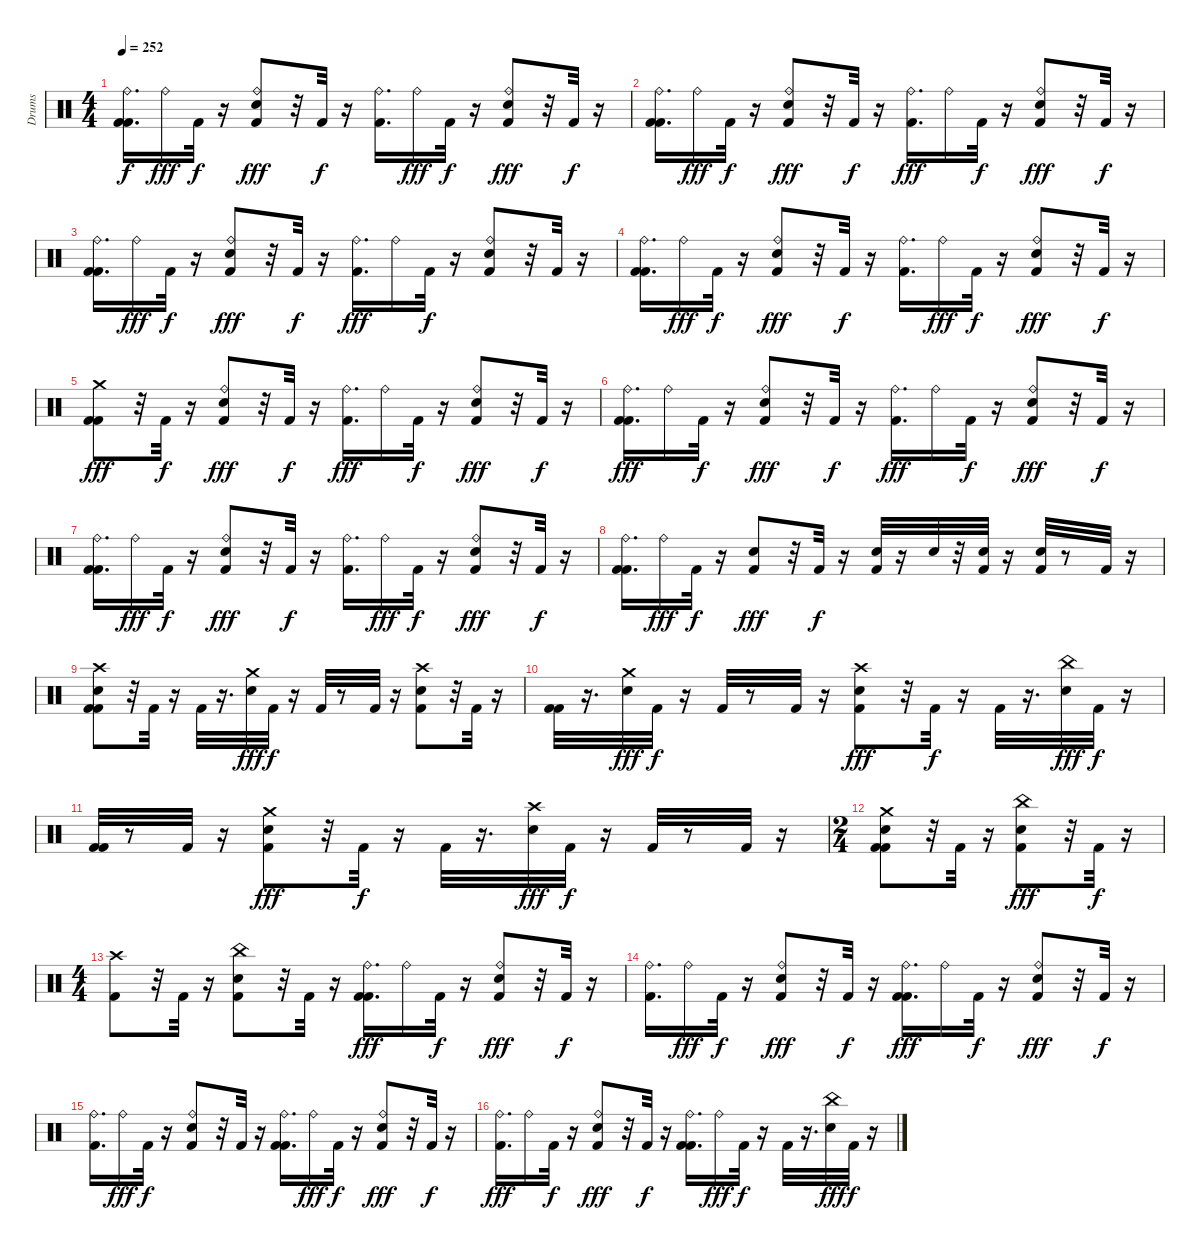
\track ("Drums" "Drums") {instrument percussion}
\staff {score}
\articulation defaults
\ts (4 4)
\tempo 252
\clef neutral
\ks c
("Kick (hit) 2" "Ride (bell)" "Kick (hit) 2").16{d dy f} "Ride (bell)".16{dy fff} "Kick (hit) 2".32{dy f} r.16 ("Snare (hit) 2" "Ride (bell)" "Kick (hit) 2").8{dy fff} r.32 "Kick (hit) 2".32{dy f} r.16 ("Kick (hit) 2" "Ride (bell)").16{d} "Ride (bell)".16{dy fff} "Kick (hit) 2".32{dy f} r.16 ("Ride (bell)" "Snare (hit) 2" "Kick (hit) 2").8{dy fff} r.32 "Kick (hit) 2".32{dy f} r.16 |
("Kick (hit) 2" "Kick (hit) 2" "Ride (bell)").16{d} "Ride (bell)".16{dy fff} "Kick (hit) 2".32{dy f} r.16 ("Snare (hit) 2" "Ride (bell)" "Kick (hit) 2").8{dy fff} r.32 "Kick (hit) 2".32{dy f} r.16 ("Ride (bell)" "Kick (hit) 2").16{d dy fff} "Ride (bell)".16 "Kick (hit) 2".32{dy f} r.16 ("Ride (bell)" "Snare (hit) 2" "Kick (hit) 2").8{dy fff} r.32 "Kick (hit) 2".32{dy f} r.16 |
("Kick (hit) 2" "Kick (hit) 2" "Ride (bell)").16{d} "Ride (bell)".16{dy fff} "Kick (hit) 2".32{dy f} r.16 ("Snare (hit) 2" "Ride (bell)" "Kick (hit) 2").8{dy fff} r.32 "Kick (hit) 2".32{dy f} r.16 ("Ride (bell)" "Kick (hit) 2").16{d dy fff} "Ride (bell)".16 "Kick (hit) 2".32{dy f} r.16 ("Kick (hit) 2" "Snare (hit) 2" "Ride (bell)").8 r.32 "Kick (hit) 2".32 r.16 |
("Kick (hit) 2" "Kick (hit) 2" "Ride (bell)").16{d} "Ride (bell)".16{dy fff} "Kick (hit) 2".32{dy f} r.16 ("Ride (bell)" "Kick (hit) 2" "Snare (hit) 2").8{dy fff} r.32 "Kick (hit) 2".32{dy f} r.16 ("Kick (hit) 2" "Ride (bell)").16{d} "Ride (bell)".16{dy fff} "Kick (hit) 2".32{dy f} r.16 ("Snare (hit) 2" "Kick (hit) 2" "Ride (bell)").8{dy fff} r.32 "Kick (hit) 2".32{dy f} r.16 |
("Crash medium (hit)" "Kick (hit) 2" "Kick (hit) 2").8{dy fff} r.32 "Kick (hit) 2".32{dy f} r.16 ("Ride (bell)" "Snare (hit) 2" "Kick (hit) 2").8{dy fff} r.32 "Kick (hit) 2".32{dy f} r.16 ("Ride (bell)" "Kick (hit) 2").16{d dy fff} "Ride (bell)".16 "Kick (hit) 2".32{dy f} r.16 ("Snare (hit) 2" "Kick (hit) 2" "Ride (bell)").8{dy fff} r.32 "Kick (hit) 2".32{dy f} r.16 |
("Ride (bell)" "Kick (hit) 2" "Kick (hit) 2").16{d dy fff} "Ride (bell)".16 "Kick (hit) 2".32{dy f} r.16 ("Snare (hit) 2" "Kick (hit) 2" "Ride (bell)").8{dy fff} r.32 "Kick (hit) 2".32{dy f} r.16 ("Ride (bell)" "Kick (hit) 2").16{d dy fff} "Ride (bell)".16 "Kick (hit) 2".32{dy f} r.16 ("Ride (bell)" "Kick (hit) 2" "Snare (hit) 2").8{dy fff} r.32 "Kick (hit) 2".32{dy f} r.16 |
("Kick (hit) 2" "Kick (hit) 2" "Ride (bell)").16{d} "Ride (bell)".16{dy fff} "Kick (hit) 2".32{dy f} r.16 ("Snare (hit) 2" "Kick (hit) 2" "Ride (bell)").8{dy fff} r.32 "Kick (hit) 2".32{dy f} r.16 ("Kick (hit) 2" "Ride (bell)").16{d} "Ride (bell)".16{dy fff} "Kick (hit) 2".32{dy f} r.16 ("Ride (bell)" "Kick (hit) 2" "Snare (hit) 2").8{dy fff} r.32 "Kick (hit) 2".32{dy f} r.16 |
("Kick (hit) 2" "Ride (bell)" "Kick (hit) 2").16{d} "Ride (bell)".16{dy fff} "Kick (hit) 2".32{dy f} r.16 ("Snare (hit) 2" "Kick (hit) 2").8{dy fff} r.32 "Kick (hit) 2".32{dy f} r.16 ("Snare (hit) 2" "Kick (hit) 2").32 r.16 "Snare (hit) 2".32 r.32 ("Snare (hit) 2" "Kick (hit) 2").32 r.16 ("Snare (hit) 2" "Kick (hit) 2").32 r.8 "Kick (hit) 2".32 r.16 |
("Kick (hit) 2" "Kick (hit) 2" "Snare (hit) 2" "Crash high (hit)").8 r.32 "Kick (hit) 2".32 r.16 "Kick (hit) 2".32 r.16{d} ("Snare (hit) 2" "Crash medium (hit)").32{dy fff} "Kick (hit) 2".32{dy f} r.16 "Kick (hit) 2".32 r.8 "Kick (hit) 2".32 r.16 ("Kick (hit) 2" "Crash high (hit)" "Snare (hit) 2").8 r.32 "Kick (hit) 2".32 r.16 |
("Kick (hit) 2" "Kick (hit) 2").32 r.16{d} ("Crash medium (hit)" "Snare (hit) 2").32{dy fff} "Kick (hit) 2".32{dy f} r.16 "Kick (hit) 2".32 r.8 "Kick (hit) 2".32 r.16 ("Crash high (hit)" "Kick (hit) 2" "Snare (hit) 2").8{dy fff} r.32 "Kick (hit) 2".32{dy f} r.16 "Kick (hit) 2".32 r.16{d} ("China (hit)" "Snare (hit) 2").32{dy fff} "Kick (hit) 2".32{dy f} r.16 |
("Kick (hit) 2" "Kick (hit) 2").32 r.8 "Kick (hit) 2".32 r.16 ("Snare (hit) 2" "Crash medium (hit)" "Kick (hit) 2").8{dy fff} r.32 "Kick (hit) 2".32{dy f} r.16 "Kick (hit) 2".32 r.16{d} ("Snare (hit) 2" "Crash high (hit)").32{dy fff} "Kick (hit) 2".32{dy f} r.16 "Kick (hit) 2".32 r.8 "Kick (hit) 2".32 r.16 |
\ts (2 4)
("Kick (hit) 2" "Snare (hit) 2" "Kick (hit) 2" "Crash medium (hit)").8 r.32 "Kick (hit) 2".32 r.16 ("China (hit)" "Snare (hit) 2" "Kick (hit) 2").8{dy fff} r.32 "Kick (hit) 2".32{dy f} r.16 |
\ts (4 4)
("Kick (hit) 2" "Crash high (hit)").8 r.32 "Kick (hit) 2".32 r.16 ("Kick (hit) 2" "Snare (hit) 2" "China (hit)").8 r.32 "Kick (hit) 2".32 r.16 ("Ride (bell)" "Kick (hit) 2" "Kick (hit) 2").16{d dy fff} "Ride (bell)".16 "Kick (hit) 2".32{dy f} r.16 ("Ride (bell)" "Kick (hit) 2" "Snare (hit) 2").8{dy fff} r.32 "Kick (hit) 2".32{dy f} r.16 |
("Kick (hit) 2" "Ride (bell)").16{d} "Ride (bell)".16{dy fff} "Kick (hit) 2".32{dy f} r.16 ("Snare (hit) 2" "Ride (bell)" "Kick (hit) 2").8{dy fff} r.32 "Kick (hit) 2".32{dy f} r.16 ("Ride (bell)" "Kick (hit) 2" "Kick (hit) 2").16{d dy fff} "Ride (bell)".16 "Kick (hit) 2".32{dy f} r.16 ("Ride (bell)" "Snare (hit) 2" "Kick (hit) 2").8{dy fff} r.32 "Kick (hit) 2".32{dy f} r.16 |
("Kick (hit) 2" "Ride (bell)").16{d} "Ride (bell)".16{dy fff} "Kick (hit) 2".32{dy f} r.16 ("Kick (hit) 2" "Snare (hit) 2" "Ride (bell)").8 r.32 "Kick (hit) 2".32 r.16 ("Kick (hit) 2" "Kick (hit) 2" "Ride (bell)").16{d} "Ride (bell)".16{dy fff} "Kick (hit) 2".32{dy f} r.16 ("Snare (hit) 2" "Ride (bell)" "Kick (hit) 2").8{dy fff} r.32 "Kick (hit) 2".32{dy f} r.16 |
("Ride (bell)" "Kick (hit) 2").16{d dy fff} "Ride (bell)".16 "Kick (hit) 2".32{dy f} r.16 ("Snare (hit) 2" "Kick (hit) 2" "Ride (bell)").8{dy fff} r.32 "Kick (hit) 2".32{dy f} r.16 ("Kick (hit) 2" "Kick (hit) 2" "Ride (bell)").16{d} "Ride (bell)".16{dy fff} "Kick (hit) 2".32{dy f} r.16 "Kick (hit) 2".32 r.16{d} ("China (hit)" "Snare (hit) 2").32{dy fff} "Kick (hit) 2".32{dy f} r.16
